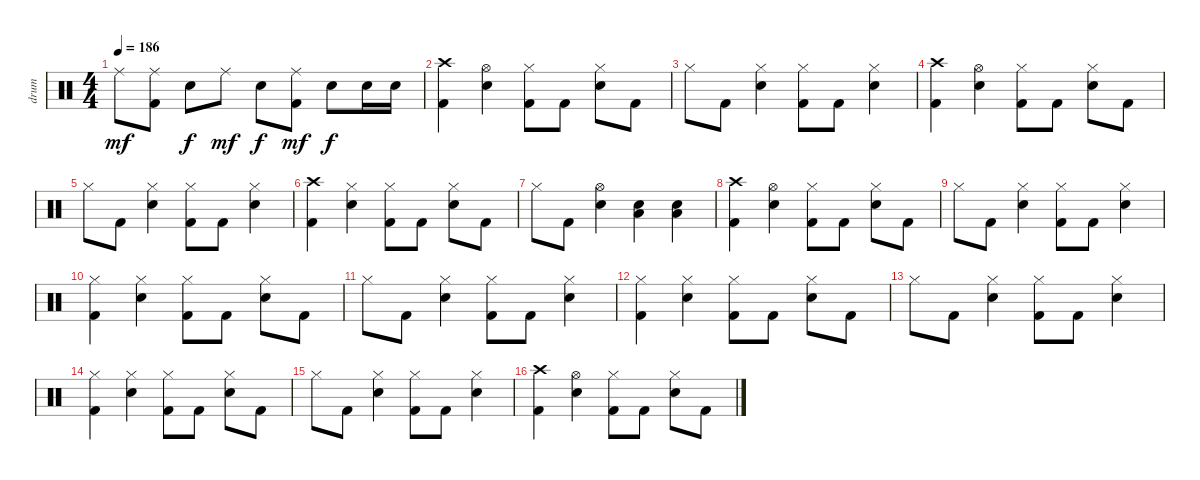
\track ("drum" "drum") {instrument percussion}
\staff {score}
\articulation defaults
\ts (4 4)
\tempo 186
\clef neutral
\ks c "Ride (middle)".8{dy mf}
("Ride (middle)" "Kick (hit) 2").8 "Snare (hit) 2".8{dy f} "Ride (middle)".8{dy mf} "Snare (hit) 2".8{dy f} ("Ride (middle)" "Kick (hit) 2").8{dy mf} "Snare (hit) 2".8{dy f} "Snare (hit) 2".16 "Snare (hit) 2".16 |
("Crash high (hit)" "Kick (hit) 2").4 ("Hi-Hat (open)" "Snare (hit) 2").4 ("Hi-Hat (closed)" "Kick (hit) 2").8 "Kick (hit) 2".8 ("Hi-Hat (closed)" "Snare (hit) 2").8 "Kick (hit) 2".8 |
"Hi-Hat (closed)".8 "Kick (hit) 2".8 ("Hi-Hat (closed)" "Snare (hit) 2").4 ("Hi-Hat (closed)" "Kick (hit) 2").8 "Kick (hit) 2".8 ("Hi-Hat (closed)" "Snare (hit) 2").4 |
("Crash high (hit)" "Kick (hit) 2").4 ("Hi-Hat (open)" "Snare (hit) 2").4 ("Hi-Hat (closed)" "Kick (hit) 2").8 "Kick (hit) 2".8 ("Hi-Hat (closed)" "Snare (hit) 2").8 "Kick (hit) 2".8 |
"Hi-Hat (closed)".8 "Kick (hit) 2".8 ("Hi-Hat (closed)" "Snare (hit) 2").4 ("Hi-Hat (closed)" "Kick (hit) 2").8 "Kick (hit) 2".8 ("Hi-Hat (closed)" "Snare (hit) 2").4 |
("Crash high (hit)" "Kick (hit) 2").4 ("Hi-Hat (closed)" "Snare (hit) 2").4 ("Hi-Hat (closed)" "Kick (hit) 2").8 "Kick (hit) 2".8 ("Hi-Hat (closed)" "Snare (hit) 2").8 "Kick (hit) 2".8 |
"Hi-Hat (closed)".8 "Kick (hit) 2".8 ("Hi-Hat (open)" "Snare (hit) 2").4 ("Snare (hit) 2" "Low Floor Tom (hit)").4 ("Snare (hit) 2" "Low Floor Tom (hit)").4 |
("Crash high (hit)" "Kick (hit) 2").4 ("Hi-Hat (open)" "Snare (hit) 2").4 ("Hi-Hat (closed)" "Kick (hit) 2").8 "Kick (hit) 2".8 ("Hi-Hat (closed)" "Snare (hit) 2").8 "Kick (hit) 2".8 |
"Hi-Hat (closed)".8 "Kick (hit) 2".8 ("Hi-Hat (closed)" "Snare (hit) 2").4 ("Hi-Hat (closed)" "Kick (hit) 2").8 "Kick (hit) 2".8 ("Hi-Hat (closed)" "Snare (hit) 2").4 |
("Hi-Hat (closed)" "Kick (hit) 2").4 ("Hi-Hat (closed)" "Snare (hit) 2").4 ("Hi-Hat (closed)" "Kick (hit) 2").8 "Kick (hit) 2".8 ("Hi-Hat (closed)" "Snare (hit) 2").8 "Kick (hit) 2".8 |
"Hi-Hat (closed)".8 "Kick (hit) 2".8 ("Hi-Hat (closed)" "Snare (hit) 2").4 ("Hi-Hat (closed)" "Kick (hit) 2").8 "Kick (hit) 2".8 ("Hi-Hat (closed)" "Snare (hit) 2").4 |
("Hi-Hat (closed)" "Kick (hit) 2").4 ("Hi-Hat (closed)" "Snare (hit) 2").4 ("Hi-Hat (closed)" "Kick (hit) 2").8 "Kick (hit) 2".8 ("Hi-Hat (closed)" "Snare (hit) 2").8 "Kick (hit) 2".8 |
"Hi-Hat (closed)".8 "Kick (hit) 2".8 ("Hi-Hat (closed)" "Snare (hit) 2").4 ("Hi-Hat (closed)" "Kick (hit) 2").8 "Kick (hit) 2".8 ("Hi-Hat (closed)" "Snare (hit) 2").4 |
("Hi-Hat (closed)" "Kick (hit) 2").4 ("Hi-Hat (closed)" "Snare (hit) 2").4 ("Hi-Hat (closed)" "Kick (hit) 2").8 "Kick (hit) 2".8 ("Hi-Hat (closed)" "Snare (hit) 2").8 "Kick (hit) 2".8 |
"Hi-Hat (closed)".8 "Kick (hit) 2".8 ("Hi-Hat (closed)" "Snare (hit) 2").4 ("Hi-Hat (closed)" "Kick (hit) 2").8 "Kick (hit) 2".8 ("Hi-Hat (closed)" "Snare (hit) 2").4 |
("Crash high (hit)" "Kick (hit) 2").4 ("Hi-Hat (open)" "Snare (hit) 2").4 ("Hi-Hat (closed)" "Kick (hit) 2").8 "Kick (hit) 2".8 ("Hi-Hat (closed)" "Snare (hit) 2").8 "Kick (hit) 2".8
